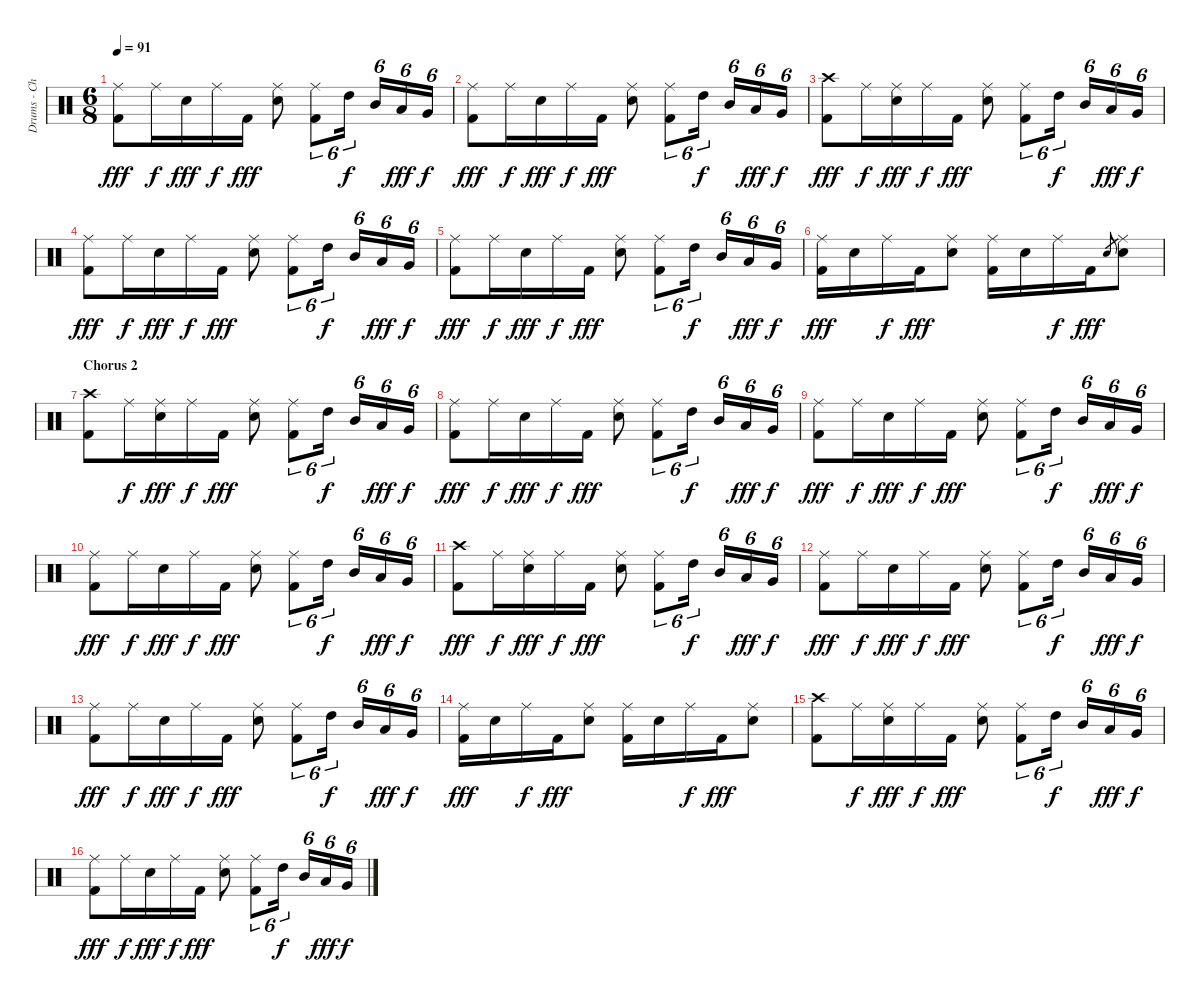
\track ("Drums - Chad" "Drums - Ch") {instrument percussion}
\staff {score}
\articulation defaults
\ts (6 8)
\tempo 91
\clef neutral
\ks c
("Ride (middle)" "Kick (hit) 2").8{dy fff} "Ride (middle)".16{dy f} "Electric Snare (hit)".16{dy fff} "Ride (middle)".16{dy f} "Kick (hit) 2".16{dy fff} ("Ride (middle)" "Electric Snare (hit)").8 ("Ride (middle)" "Kick (hit) 2").8{tu (6 4)} "High Tom (hit)".16{tu (6 4) dy f} "Mid Tom (hit)".16{tu (6 4)} "Low Tom (hit)".16{tu (6 4) dy fff} "Very Low Tom (hit)".16{tu (6 4) dy f} |
("Ride (middle)" "Kick (hit) 2").8{dy fff} "Ride (middle)".16{dy f} "Electric Snare (hit)".16{dy fff} "Ride (middle)".16{dy f} "Kick (hit) 2".16{dy fff} ("Ride (middle)" "Electric Snare (hit)").8 ("Ride (middle)" "Kick (hit) 2").8{tu (6 4)} "High Tom (hit)".16{tu (6 4) dy f} "Mid Tom (hit)".16{tu (6 4)} "Low Tom (hit)".16{tu (6 4) dy fff} "Very Low Tom (hit)".16{tu (6 4) dy f} |
("Crash high (hit)" "Kick (hit) 2").8{dy fff} "Ride (middle)".16{dy f} ("Ride (middle)" "Electric Snare (hit)").16{dy fff} "Ride (middle)".16{dy f} "Kick (hit) 2".16{dy fff} ("Ride (middle)" "Electric Snare (hit)").8 ("Ride (middle)" "Kick (hit) 2").8{tu (6 4)} "High Tom (hit)".16{tu (6 4) dy f} "Mid Tom (hit)".16{tu (6 4)} "Low Tom (hit)".16{tu (6 4) dy fff} "Very Low Tom (hit)".16{tu (6 4) dy f} |
("Ride (middle)" "Kick (hit) 2").8{dy fff} "Ride (middle)".16{dy f} "Electric Snare (hit)".16{dy fff} "Ride (middle)".16{dy f} "Kick (hit) 2".16{dy fff} ("Ride (middle)" "Electric Snare (hit)").8 ("Ride (middle)" "Kick (hit) 2").8{tu (6 4)} "High Tom (hit)".16{tu (6 4) dy f} "Mid Tom (hit)".16{tu (6 4)} "Low Tom (hit)".16{tu (6 4) dy fff} "Very Low Tom (hit)".16{tu (6 4) dy f} |
("Ride (middle)" "Kick (hit) 2").8{dy fff} "Ride (middle)".16{dy f} "Electric Snare (hit)".16{dy fff} "Ride (middle)".16{dy f} "Kick (hit) 2".16{dy fff} ("Ride (middle)" "Electric Snare (hit)").8 ("Ride (middle)" "Kick (hit) 2").8{tu (6 4)} "High Tom (hit)".16{tu (6 4) dy f} "Mid Tom (hit)".16{tu (6 4)} "Low Tom (hit)".16{tu (6 4) dy fff} "Very Low Tom (hit)".16{tu (6 4) dy f} |
("Ride (middle)" "Kick (hit) 2").16{dy fff} "Electric Snare (hit)".16 "Ride (middle)".16{dy f} "Kick (hit) 2".16{dy fff} ("Ride (middle)" "Electric Snare (hit)").8 ("Ride (middle)" "Kick (hit) 2").16 "Electric Snare (hit)".16 "Ride (middle)".16{dy f} "Kick (hit) 2".16{dy fff} "Electric Snare (hit)".8{gr} ("Ride (middle)" "Electric Snare (hit)").8 |
\section ("" "Chorus 2")
("Crash high (hit)" "Kick (hit) 2").8 "Ride (middle)".16{dy f} ("Ride (middle)" "Electric Snare (hit)").16{dy fff} "Ride (middle)".16{dy f} "Kick (hit) 2".16{dy fff} ("Ride (middle)" "Electric Snare (hit)").8 ("Ride (middle)" "Kick (hit) 2").8{tu (6 4)} "High Tom (hit)".16{tu (6 4) dy f} "Mid Tom (hit)".16{tu (6 4)} "Low Tom (hit)".16{tu (6 4) dy fff} "Very Low Tom (hit)".16{tu (6 4) dy f} |
("Ride (middle)" "Kick (hit) 2").8{dy fff} "Ride (middle)".16{dy f} "Electric Snare (hit)".16{dy fff} "Ride (middle)".16{dy f} "Kick (hit) 2".16{dy fff} ("Ride (middle)" "Electric Snare (hit)").8 ("Ride (middle)" "Kick (hit) 2").8{tu (6 4)} "High Tom (hit)".16{tu (6 4) dy f} "Mid Tom (hit)".16{tu (6 4)} "Low Tom (hit)".16{tu (6 4) dy fff} "Very Low Tom (hit)".16{tu (6 4) dy f} |
("Ride (middle)" "Kick (hit) 2").8{dy fff} "Ride (middle)".16{dy f} "Electric Snare (hit)".16{dy fff} "Ride (middle)".16{dy f} "Kick (hit) 2".16{dy fff} ("Ride (middle)" "Electric Snare (hit)").8 ("Ride (middle)" "Kick (hit) 2").8{tu (6 4)} "High Tom (hit)".16{tu (6 4) dy f} "Mid Tom (hit)".16{tu (6 4)} "Low Tom (hit)".16{tu (6 4) dy fff} "Very Low Tom (hit)".16{tu (6 4) dy f} |
("Ride (middle)" "Kick (hit) 2").8{dy fff} "Ride (middle)".16{dy f} "Electric Snare (hit)".16{dy fff} "Ride (middle)".16{dy f} "Kick (hit) 2".16{dy fff} ("Ride (middle)" "Electric Snare (hit)").8 ("Ride (middle)" "Kick (hit) 2").8{tu (6 4)} "High Tom (hit)".16{tu (6 4) dy f} "Mid Tom (hit)".16{tu (6 4)} "Low Tom (hit)".16{tu (6 4) dy fff} "Very Low Tom (hit)".16{tu (6 4) dy f} |
("Crash high (hit)" "Kick (hit) 2").8{dy fff} "Ride (middle)".16{dy f} ("Ride (middle)" "Electric Snare (hit)").16{dy fff} "Ride (middle)".16{dy f} "Kick (hit) 2".16{dy fff} ("Ride (middle)" "Electric Snare (hit)").8 ("Ride (middle)" "Kick (hit) 2").8{tu (6 4)} "High Tom (hit)".16{tu (6 4) dy f} "Mid Tom (hit)".16{tu (6 4)} "Low Tom (hit)".16{tu (6 4) dy fff} "Very Low Tom (hit)".16{tu (6 4) dy f} |
("Ride (middle)" "Kick (hit) 2").8{dy fff} "Ride (middle)".16{dy f} "Electric Snare (hit)".16{dy fff} "Ride (middle)".16{dy f} "Kick (hit) 2".16{dy fff} ("Ride (middle)" "Electric Snare (hit)").8 ("Ride (middle)" "Kick (hit) 2").8{tu (6 4)} "High Tom (hit)".16{tu (6 4) dy f} "Mid Tom (hit)".16{tu (6 4)} "Low Tom (hit)".16{tu (6 4) dy fff} "Very Low Tom (hit)".16{tu (6 4) dy f} |
("Ride (middle)" "Kick (hit) 2").8{dy fff} "Ride (middle)".16{dy f} "Electric Snare (hit)".16{dy fff} "Ride (middle)".16{dy f} "Kick (hit) 2".16{dy fff} ("Ride (middle)" "Electric Snare (hit)").8 ("Ride (middle)" "Kick (hit) 2").8{tu (6 4)} "High Tom (hit)".16{tu (6 4) dy f} "Mid Tom (hit)".16{tu (6 4)} "Low Tom (hit)".16{tu (6 4) dy fff} "Very Low Tom (hit)".16{tu (6 4) dy f} |
("Ride (middle)" "Kick (hit) 2").16{dy fff} "Electric Snare (hit)".16 "Ride (middle)".16{dy f} "Kick (hit) 2".16{dy fff} ("Ride (middle)" "Electric Snare (hit)").8 ("Ride (middle)" "Kick (hit) 2").16 "Electric Snare (hit)".16 "Ride (middle)".16{dy f} "Kick (hit) 2".16{dy fff} ("Ride (middle)" "Electric Snare (hit)").8 |
("Crash high (hit)" "Kick (hit) 2").8 "Ride (middle)".16{dy f} ("Ride (middle)" "Electric Snare (hit)").16{dy fff} "Ride (middle)".16{dy f} "Kick (hit) 2".16{dy fff} ("Ride (middle)" "Electric Snare (hit)").8 ("Ride (middle)" "Kick (hit) 2").8{tu (6 4)} "High Tom (hit)".16{tu (6 4) dy f} "Mid Tom (hit)".16{tu (6 4)} "Low Tom (hit)".16{tu (6 4) dy fff} "Very Low Tom (hit)".16{tu (6 4) dy f} |
("Ride (middle)" "Kick (hit) 2").8{dy fff} "Ride (middle)".16{dy f} "Electric Snare (hit)".16{dy fff} "Ride (middle)".16{dy f} "Kick (hit) 2".16{dy fff} ("Ride (middle)" "Electric Snare (hit)").8 ("Ride (middle)" "Kick (hit) 2").8{tu (6 4)} "High Tom (hit)".16{tu (6 4) dy f} "Mid Tom (hit)".16{tu (6 4)} "Low Tom (hit)".16{tu (6 4) dy fff} "Very Low Tom (hit)".16{tu (6 4) dy f}
